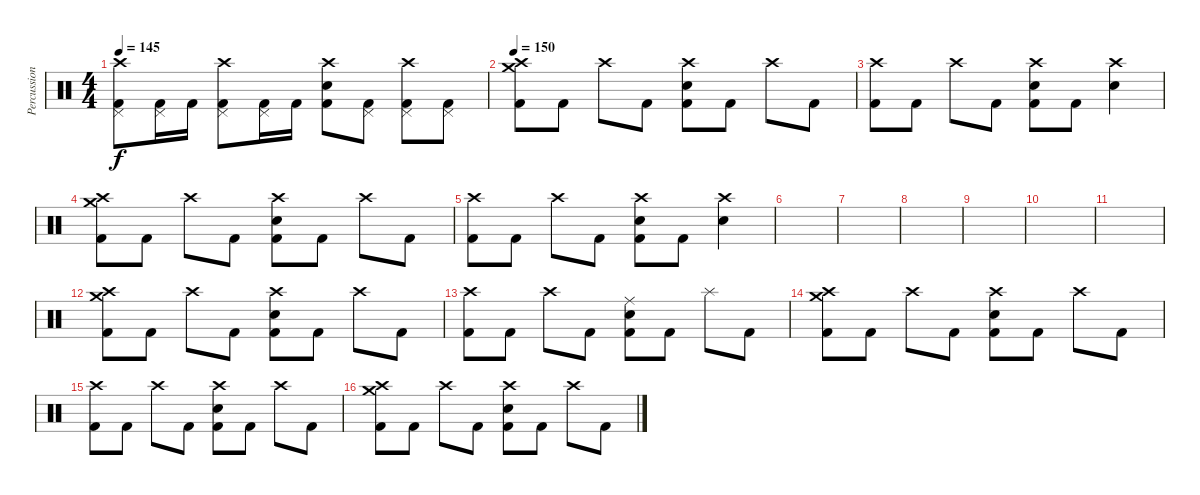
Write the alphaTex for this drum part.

\track ("Percussion" "Percussion") {instrument percussion}
\staff {score}
\articulation defaults
\ts (4 4)
\tempo 145
\clef neutral
\ks c
("Crash high (hit)" "Pedal Hi-Hat (hit)" "Kick (hit) 2").8{dy f} ("Pedal Hi-Hat (hit)" "Kick (hit) 2").16 "Kick (hit) 2".16 ("Crash high (hit)" "Pedal Hi-Hat (hit)" "Kick (hit) 2").8 ("Pedal Hi-Hat (hit)" "Kick (hit) 2").16 "Kick (hit) 2".16 ("Crash high (hit)" "Snare (hit) 2" "Kick (hit) 2").8 ("Pedal Hi-Hat (hit)" "Kick (hit) 2").8 ("Crash high (hit)" "Pedal Hi-Hat (hit)" "Kick (hit) 2").8 ("Pedal Hi-Hat (hit)" "Kick (hit) 2").8 |
\tempo 150
("Crash medium (hit)" "Crash high (hit)" "Kick (hit) 2").8 "Kick (hit) 2".8 "Crash high (hit)".8 "Kick (hit) 2".8 ("Crash high (hit)" "Snare (hit) 2" "Kick (hit) 2").8 "Kick (hit) 2".8 "Crash high (hit)".8 "Kick (hit) 2".8 |
("Crash high (hit)" "Kick (hit) 2").8 "Kick (hit) 2".8 "Crash high (hit)".8 "Kick (hit) 2".8 ("Crash high (hit)" "Snare (hit) 2" "Kick (hit) 2").8 "Kick (hit) 2".8 ("Crash high (hit)" "Snare (hit) 2").4 |
("Crash medium (hit)" "Crash high (hit)" "Kick (hit) 2").8 "Kick (hit) 2".8 "Crash high (hit)".8 "Kick (hit) 2".8 ("Crash high (hit)" "Snare (hit) 2" "Kick (hit) 2").8 "Kick (hit) 2".8 "Crash high (hit)".8 "Kick (hit) 2".8 |
("Crash high (hit)" "Kick (hit) 2").8 "Kick (hit) 2".8 "Crash high (hit)".8 "Kick (hit) 2".8 ("Crash high (hit)" "Snare (hit) 2" "Kick (hit) 2").8 "Kick (hit) 2".8 ("Crash high (hit)" "Snare (hit) 2").4 |
|
|
|
|
|
|
("Crash medium (hit)" "Crash high (hit)" "Kick (hit) 2").8 "Kick (hit) 2".8 "Crash high (hit)".8 "Kick (hit) 2".8 ("Crash high (hit)" "Snare (hit) 2" "Kick (hit) 2").8 "Kick (hit) 2".8 "Crash high (hit)".8 "Kick (hit) 2".8 |
("Crash high (hit)" "Kick (hit) 2").8 "Kick (hit) 2".8 "Crash high (hit)".8 "Kick (hit) 2".8 ("Ride (middle)" "Snare (hit) 2" "Kick (hit) 2").8 "Kick (hit) 2".8 "Splash (hit)".8 "Kick (hit) 2".8 |
("Crash medium (hit)" "Crash high (hit)" "Kick (hit) 2").8 "Kick (hit) 2".8 "Crash high (hit)".8 "Kick (hit) 2".8 ("Crash high (hit)" "Snare (hit) 2" "Kick (hit) 2").8 "Kick (hit) 2".8 "Crash high (hit)".8 "Kick (hit) 2".8 |
("Crash high (hit)" "Kick (hit) 2").8 "Kick (hit) 2".8 "Crash high (hit)".8 "Kick (hit) 2".8 ("Crash high (hit)" "Snare (hit) 2" "Kick (hit) 2").8 "Kick (hit) 2".8 "Crash high (hit)".8 "Kick (hit) 2".8 |
("Crash medium (hit)" "Crash high (hit)" "Kick (hit) 2").8 "Kick (hit) 2".8 "Crash high (hit)".8 "Kick (hit) 2".8 ("Crash high (hit)" "Snare (hit) 2" "Kick (hit) 2").8 "Kick (hit) 2".8 "Crash high (hit)".8 "Kick (hit) 2".8
